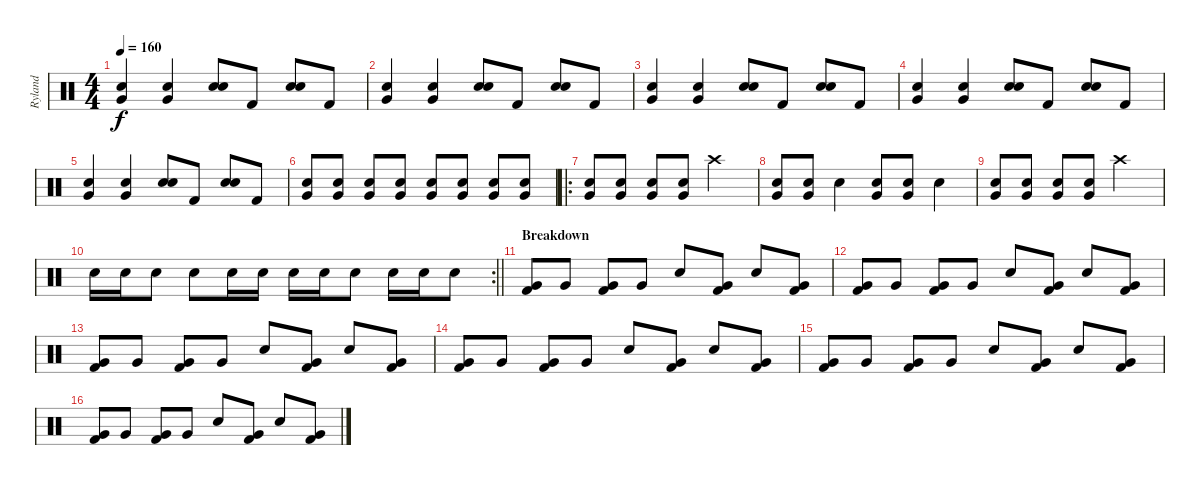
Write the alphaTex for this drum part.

\track ("Ryland" "Ryland") {instrument percussion}
\staff {score}
\articulation defaults
\ts (4 4)
\tempo 160
\clef neutral
\ks c
("Very Low Tom (hit)" "Electric Snare (hit)").4{dy f} ("Very Low Tom (hit)" "Electric Snare (hit)").4 ("Electric Snare (hit)" "Electric Snare (hit)").8 "Kick (hit) 2".8 ("Electric Snare (hit)" "Electric Snare (hit)").8 "Kick (hit) 2".8 |
("Very Low Tom (hit)" "Electric Snare (hit)").4 ("Very Low Tom (hit)" "Electric Snare (hit)").4 ("Electric Snare (hit)" "Electric Snare (hit)").8 "Kick (hit) 2".8 ("Electric Snare (hit)" "Electric Snare (hit)").8 "Kick (hit) 2".8 |
("Very Low Tom (hit)" "Electric Snare (hit)").4 ("Very Low Tom (hit)" "Electric Snare (hit)").4 ("Electric Snare (hit)" "Electric Snare (hit)").8 "Kick (hit) 2".8 ("Electric Snare (hit)" "Electric Snare (hit)").8 "Kick (hit) 2".8 |
("Very Low Tom (hit)" "Electric Snare (hit)").4 ("Very Low Tom (hit)" "Electric Snare (hit)").4 ("Electric Snare (hit)" "Electric Snare (hit)").8 "Kick (hit) 2".8 ("Electric Snare (hit)" "Electric Snare (hit)").8 "Kick (hit) 2".8 |
("Very Low Tom (hit)" "Electric Snare (hit)").4 ("Very Low Tom (hit)" "Electric Snare (hit)").4 ("Electric Snare (hit)" "Electric Snare (hit)").8 "Kick (hit) 2".8 ("Electric Snare (hit)" "Electric Snare (hit)").8 "Kick (hit) 2".8 |
("Very Low Tom (hit)" "Electric Snare (hit)").8 ("Very Low Tom (hit)" "Electric Snare (hit)").8 ("Very Low Tom (hit)" "Electric Snare (hit)").8 ("Very Low Tom (hit)" "Electric Snare (hit)").8 ("Very Low Tom (hit)" "Electric Snare (hit)").8 ("Very Low Tom (hit)" "Electric Snare (hit)").8 ("Very Low Tom (hit)" "Electric Snare (hit)").8 ("Very Low Tom (hit)" "Electric Snare (hit)").8 |
\ro
("Very Low Tom (hit)" "Electric Snare (hit)").8 ("Very Low Tom (hit)" "Electric Snare (hit)").8 ("Very Low Tom (hit)" "Electric Snare (hit)").8 ("Very Low Tom (hit)" "Electric Snare (hit)").8 "Crash high (hit)".2 |
("Very Low Tom (hit)" "Electric Snare (hit)").8 ("Very Low Tom (hit)" "Electric Snare (hit)").8 "Electric Snare (hit)".4 ("Very Low Tom (hit)" "Electric Snare (hit)").8 ("Very Low Tom (hit)" "Electric Snare (hit)").8 "Electric Snare (hit)".4 |
("Very Low Tom (hit)" "Electric Snare (hit)").8 ("Very Low Tom (hit)" "Electric Snare (hit)").8 ("Very Low Tom (hit)" "Electric Snare (hit)").8 ("Very Low Tom (hit)" "Electric Snare (hit)").8 "Crash high (hit)".2 |
\rc 2
\barLineRight lightlight "Electric Snare (hit)".16 "Electric Snare (hit)".16 "Electric Snare (hit)".8 "Electric Snare (hit)".8 "Electric Snare (hit)".16 "Electric Snare (hit)".16 "Electric Snare (hit)".16 "Electric Snare (hit)".16 "Electric Snare (hit)".8 "Electric Snare (hit)".16 "Electric Snare (hit)".16 "Electric Snare (hit)".8
|
\section ("" "Breakdown")
("Very Low Tom (hit)" "Kick (hit) 2").8 "Very Low Tom (hit)".8 ("Very Low Tom (hit)" "Kick (hit) 2").8 "Very Low Tom (hit)".8 "Electric Snare (hit)".8 ("Very Low Tom (hit)" "Kick (hit) 2").8 "Electric Snare (hit)".8 ("Very Low Tom (hit)" "Kick (hit) 2").8 |
("Very Low Tom (hit)" "Kick (hit) 2").8 "Very Low Tom (hit)".8 ("Very Low Tom (hit)" "Kick (hit) 2").8 "Very Low Tom (hit)".8 "Electric Snare (hit)".8 ("Very Low Tom (hit)" "Kick (hit) 2").8 "Electric Snare (hit)".8 ("Very Low Tom (hit)" "Kick (hit) 2").8 |
("Very Low Tom (hit)" "Kick (hit) 2").8 "Very Low Tom (hit)".8 ("Very Low Tom (hit)" "Kick (hit) 2").8 "Very Low Tom (hit)".8 "Electric Snare (hit)".8 ("Very Low Tom (hit)" "Kick (hit) 2").8 "Electric Snare (hit)".8 ("Very Low Tom (hit)" "Kick (hit) 2").8 |
("Very Low Tom (hit)" "Kick (hit) 2").8 "Very Low Tom (hit)".8 ("Very Low Tom (hit)" "Kick (hit) 2").8 "Very Low Tom (hit)".8 "Electric Snare (hit)".8 ("Very Low Tom (hit)" "Kick (hit) 2").8 "Electric Snare (hit)".8 ("Very Low Tom (hit)" "Kick (hit) 2").8 |
("Very Low Tom (hit)" "Kick (hit) 2").8 "Very Low Tom (hit)".8 ("Very Low Tom (hit)" "Kick (hit) 2").8 "Very Low Tom (hit)".8 "Electric Snare (hit)".8 ("Very Low Tom (hit)" "Kick (hit) 2").8 "Electric Snare (hit)".8 ("Very Low Tom (hit)" "Kick (hit) 2").8 |
("Very Low Tom (hit)" "Kick (hit) 2").8 "Very Low Tom (hit)".8 ("Very Low Tom (hit)" "Kick (hit) 2").8 "Very Low Tom (hit)".8 "Electric Snare (hit)".8 ("Very Low Tom (hit)" "Kick (hit) 2").8 "Electric Snare (hit)".8 ("Very Low Tom (hit)" "Kick (hit) 2").8
